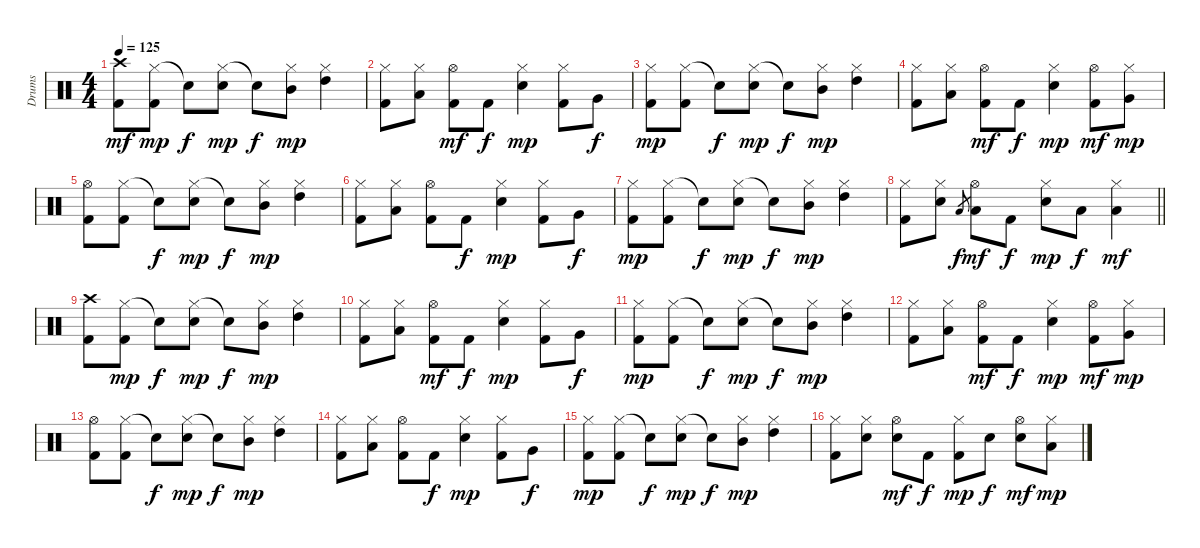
\track ("Drums" "Drums") {instrument percussion}
\staff {score}
\articulation defaults
\ts (4 4)
\tempo 125
\clef neutral
\ks c
("Crash high (hit)" "Kick (hit) 2").8{dy mf} ("Hi-Hat (closed)" "Kick (hit) 2").8{dy mp} "Snare (hit)"{t}.8{dy f} ("Hi-Hat (closed)" "Snare (hit) 2").8{dy mp} "Snare (hit)"{t}.8{dy f} ("Hi-Hat (closed)" "Mid Tom (hit)").8{dy mp} ("Hi-Hat (closed)" "High Tom (hit)").4 |
("Hi-Hat (closed)" "Kick (hit) 2").8 ("Hi-Hat (closed)" "Low Tom (hit)").8 ("Hi-Hat (open)" "Kick (hit) 2").8{dy mf} "Kick (hit) 2".8{dy f} ("Hi-Hat (closed)" "Snare (hit) 2").4{dy mp} ("Hi-Hat (closed)" "Kick (hit) 2").8 "Very Low Tom (hit)".8{dy f} |
("Hi-Hat (closed)" "Kick (hit) 2").8{dy mp} ("Hi-Hat (closed)" "Kick (hit) 2").8 "Snare (hit)"{t}.8{dy f} ("Hi-Hat (closed)" "Snare (hit) 2").8{dy mp} "Snare (hit)"{t}.8{dy f} ("Hi-Hat (closed)" "Mid Tom (hit)").8{dy mp} ("Hi-Hat (closed)" "High Tom (hit)").4 |
("Hi-Hat (closed)" "Kick (hit) 2").8 ("Hi-Hat (closed)" "Low Tom (hit)").8 ("Hi-Hat (open)" "Kick (hit) 2").8{dy mf} "Kick (hit) 2".8{dy f} ("Hi-Hat (closed)" "Snare (hit) 2").4{dy mp} ("Hi-Hat (open)" "Kick (hit) 2").8{dy mf} ("Hi-Hat (closed)" "Very Low Tom (hit)").8{dy mp} |
("Hi-Hat (open)" "Kick (hit) 2").8 ("Hi-Hat (closed)" "Kick (hit) 2").8 "Snare (hit)"{t}.8{dy f} ("Hi-Hat (closed)" "Snare (hit) 2").8{dy mp} "Snare (hit)"{t}.8{dy f} ("Hi-Hat (closed)" "Mid Tom (hit)").8{dy mp} ("Hi-Hat (closed)" "High Tom (hit)").4 |
("Hi-Hat (closed)" "Kick (hit) 2").8 ("Hi-Hat (closed)" "Low Tom (hit)").8 ("Hi-Hat (open)" "Kick (hit) 2").8 "Kick (hit) 2".8{dy f} ("Hi-Hat (closed)" "Snare (hit) 2").4{dy mp} ("Hi-Hat (closed)" "Kick (hit) 2").8 "Very Low Tom (hit)".8{dy f} |
("Hi-Hat (closed)" "Kick (hit) 2").8{dy mp} ("Hi-Hat (closed)" "Kick (hit) 2").8 "Snare (hit)"{t}.8{dy f} ("Hi-Hat (closed)" "Snare (hit) 2").8{dy mp} "Snare (hit)"{t}.8{dy f} ("Hi-Hat (closed)" "Mid Tom (hit)").8{dy mp} ("Hi-Hat (closed)" "High Tom (hit)").4 |
\barLineRight lightlight
("Hi-Hat (closed)" "Kick (hit) 2").8 ("Hi-Hat (closed)" "Snare (hit) 2").8 "Low Tom (hit)".8{gr dy f} ("Hi-Hat (open)" "Low Tom (hit)").8{dy mf} "Kick (hit) 2".8{dy f} ("Hi-Hat (closed)" "Snare (hit) 2").8{dy mp} "Low Tom (hit)".8{dy f} ("Hi-Hat (closed)" "Low Tom (hit)").4{dy mf} |
\section ("" "")
("Crash high (hit)" "Kick (hit) 2").8 ("Hi-Hat (closed)" "Kick (hit) 2").8{dy mp} "Snare (hit)"{t}.8{dy f} ("Hi-Hat (closed)" "Snare (hit) 2").8{dy mp} "Snare (hit)"{t}.8{dy f} ("Hi-Hat (closed)" "Mid Tom (hit)").8{dy mp} ("Hi-Hat (closed)" "High Tom (hit)").4 |
("Hi-Hat (closed)" "Kick (hit) 2").8 ("Hi-Hat (closed)" "Low Tom (hit)").8 ("Hi-Hat (open)" "Kick (hit) 2").8{dy mf} "Kick (hit) 2".8{dy f} ("Hi-Hat (closed)" "Snare (hit) 2").4{dy mp} ("Hi-Hat (closed)" "Kick (hit) 2").8 "Very Low Tom (hit)".8{dy f} |
("Hi-Hat (closed)" "Kick (hit) 2").8{dy mp} ("Hi-Hat (closed)" "Kick (hit) 2").8 "Snare (hit)"{t}.8{dy f} ("Hi-Hat (closed)" "Snare (hit) 2").8{dy mp} "Snare (hit)"{t}.8{dy f} ("Hi-Hat (closed)" "Mid Tom (hit)").8{dy mp} ("Hi-Hat (closed)" "High Tom (hit)").4 |
("Hi-Hat (closed)" "Kick (hit) 2").8 ("Hi-Hat (closed)" "Low Tom (hit)").8 ("Hi-Hat (open)" "Kick (hit) 2").8{dy mf} "Kick (hit) 2".8{dy f} ("Hi-Hat (closed)" "Snare (hit) 2").4{dy mp} ("Hi-Hat (open)" "Kick (hit) 2").8{dy mf} ("Hi-Hat (closed)" "Very Low Tom (hit)").8{dy mp} |
("Hi-Hat (open)" "Kick (hit) 2").8 ("Hi-Hat (closed)" "Kick (hit) 2").8 "Snare (hit)"{t}.8{dy f} ("Hi-Hat (closed)" "Snare (hit) 2").8{dy mp} "Snare (hit)"{t}.8{dy f} ("Hi-Hat (closed)" "Mid Tom (hit)").8{dy mp} ("Hi-Hat (closed)" "High Tom (hit)").4 |
("Hi-Hat (closed)" "Kick (hit) 2").8 ("Hi-Hat (closed)" "Low Tom (hit)").8 ("Hi-Hat (open)" "Kick (hit) 2").8 "Kick (hit) 2".8{dy f} ("Hi-Hat (closed)" "Snare (hit) 2").4{dy mp} ("Hi-Hat (closed)" "Kick (hit) 2").8 "Very Low Tom (hit)".8{dy f} |
("Hi-Hat (closed)" "Kick (hit) 2").8{dy mp} ("Hi-Hat (closed)" "Kick (hit) 2").8 "Snare (hit)"{t}.8{dy f} ("Hi-Hat (closed)" "Snare (hit) 2").8{dy mp} "Snare (hit)"{t}.8{dy f} ("Hi-Hat (closed)" "Mid Tom (hit)").8{dy mp} ("Hi-Hat (closed)" "High Tom (hit)").4 |
("Hi-Hat (closed)" "Kick (hit) 2").8 ("Hi-Hat (closed)" "Snare (hit) 2").8 ("Hi-Hat (open)" "Snare (hit) 2").8{dy mf} "Kick (hit) 2".8{dy f} ("Hi-Hat (closed)" "Kick (hit) 2").8{dy mp} "Snare (hit) 2".8{dy f} ("Hi-Hat (open)" "Snare (hit) 2").8{dy mf} ("Hi-Hat (closed)" "Low Tom (hit)").8{dy mp}
